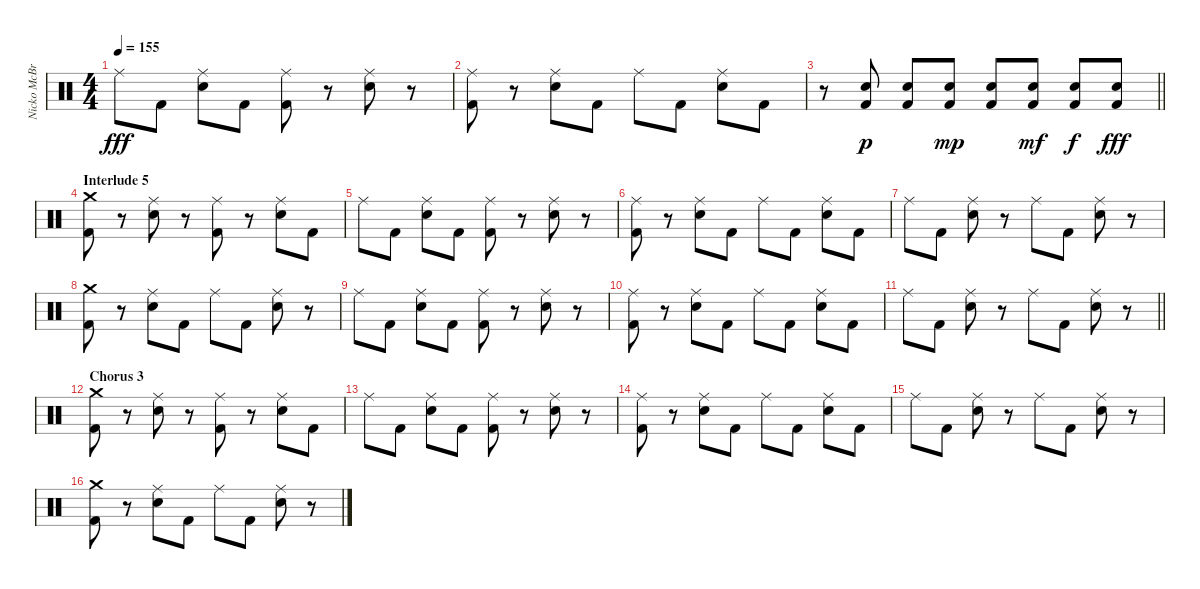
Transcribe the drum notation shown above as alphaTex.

\track ("Nicko McBrain" "Nicko McBr") {instrument percussion}
\staff {score}
\articulation defaults
\ts (4 4)
\tempo 155
\clef neutral
\ks c "Ride (middle)".8{dy fff} "Kick (hit) 2".8
("Ride (middle)" "Snare (hit) 2").8 "Kick (hit) 2".8 ("Ride (middle)" "Kick (hit) 2").8 r.8 ("Ride (middle)" "Snare (hit) 2").8 r.8 |
("Ride (middle)" "Kick (hit) 2").8 r.8 ("Ride (middle)" "Snare (hit) 2").8 "Kick (hit) 2".8 "Ride (middle)".8 "Kick (hit) 2".8 ("Ride (middle)" "Snare (hit) 2").8 "Kick (hit) 2".8 |
\barLineRight lightlight
r.8 ("Snare (hit) 2" "Kick (hit) 2").8{dy p} ("Snare (hit) 2" "Kick (hit) 2").8 ("Snare (hit) 2" "Kick (hit) 2").8{dy mp} ("Snare (hit) 2" "Kick (hit) 2").8 ("Snare (hit) 2" "Kick (hit) 2").8{dy mf} ("Snare (hit) 2" "Kick (hit) 2").8{dy f} ("Snare (hit) 2" "Kick (hit) 2").8{dy fff} |
\section ("" "Interlude 5")
("Crash medium (hit)" "Kick (hit) 2").8 r.8 ("Ride (middle)" "Snare (hit) 2").8 r.8 ("Ride (middle)" "Kick (hit) 2").8 r.8 ("Ride (middle)" "Snare (hit) 2").8 "Kick (hit) 2".8 |
"Ride (middle)".8 "Kick (hit) 2".8 ("Ride (middle)" "Snare (hit) 2").8 "Kick (hit) 2".8 ("Ride (middle)" "Kick (hit) 2").8 r.8 ("Ride (middle)" "Snare (hit) 2").8 r.8 |
("Ride (middle)" "Kick (hit) 2").8 r.8 ("Ride (middle)" "Snare (hit) 2").8 "Kick (hit) 2".8 "Ride (middle)".8 "Kick (hit) 2".8 ("Ride (middle)" "Snare (hit) 2").8 "Kick (hit) 2".8 |
"Ride (middle)".8 "Kick (hit) 2".8 ("Ride (middle)" "Snare (hit) 2").8 r.8 "Ride (middle)".8 "Kick (hit) 2".8 ("Ride (middle)" "Snare (hit) 2").8 r.8 |
("Crash medium (hit)" "Kick (hit) 2").8 r.8 ("Ride (middle)" "Snare (hit) 2").8 "Kick (hit) 2".8 "Ride (middle)".8 "Kick (hit) 2".8 ("Ride (middle)" "Snare (hit) 2").8 r.8 |
"Ride (middle)".8 "Kick (hit) 2".8 ("Ride (middle)" "Snare (hit) 2").8 "Kick (hit) 2".8 ("Ride (middle)" "Kick (hit) 2").8 r.8 ("Ride (middle)" "Snare (hit) 2").8 r.8 |
("Ride (middle)" "Kick (hit) 2").8 r.8 ("Ride (middle)" "Snare (hit) 2").8 "Kick (hit) 2".8 "Ride (middle)".8 "Kick (hit) 2".8 ("Ride (middle)" "Snare (hit) 2").8 "Kick (hit) 2".8 |
\barLineRight lightlight "Ride (middle)".8 "Kick (hit) 2".8
("Ride (middle)" "Snare (hit) 2").8 r.8 "Ride (middle)".8 "Kick (hit) 2".8 ("Ride (middle)" "Snare (hit) 2").8 r.8 |
\section ("" "Chorus 3")
("Crash medium (hit)" "Kick (hit) 2").8 r.8 ("Ride (middle)" "Snare (hit) 2").8 r.8 ("Ride (middle)" "Kick (hit) 2").8 r.8 ("Ride (middle)" "Snare (hit) 2").8 "Kick (hit) 2".8 |
"Ride (middle)".8 "Kick (hit) 2".8 ("Ride (middle)" "Snare (hit) 2").8 "Kick (hit) 2".8 ("Ride (middle)" "Kick (hit) 2").8 r.8 ("Ride (middle)" "Snare (hit) 2").8 r.8 |
("Ride (middle)" "Kick (hit) 2").8 r.8 ("Ride (middle)" "Snare (hit) 2").8 "Kick (hit) 2".8 "Ride (middle)".8 "Kick (hit) 2".8 ("Ride (middle)" "Snare (hit) 2").8 "Kick (hit) 2".8 |
"Ride (middle)".8 "Kick (hit) 2".8 ("Ride (middle)" "Snare (hit) 2").8 r.8 "Ride (middle)".8 "Kick (hit) 2".8 ("Ride (middle)" "Snare (hit) 2").8 r.8 |
("Crash medium (hit)" "Kick (hit) 2").8 r.8 ("Ride (middle)" "Snare (hit) 2").8 "Kick (hit) 2".8 "Ride (middle)".8 "Kick (hit) 2".8 ("Ride (middle)" "Snare (hit) 2").8 r.8
